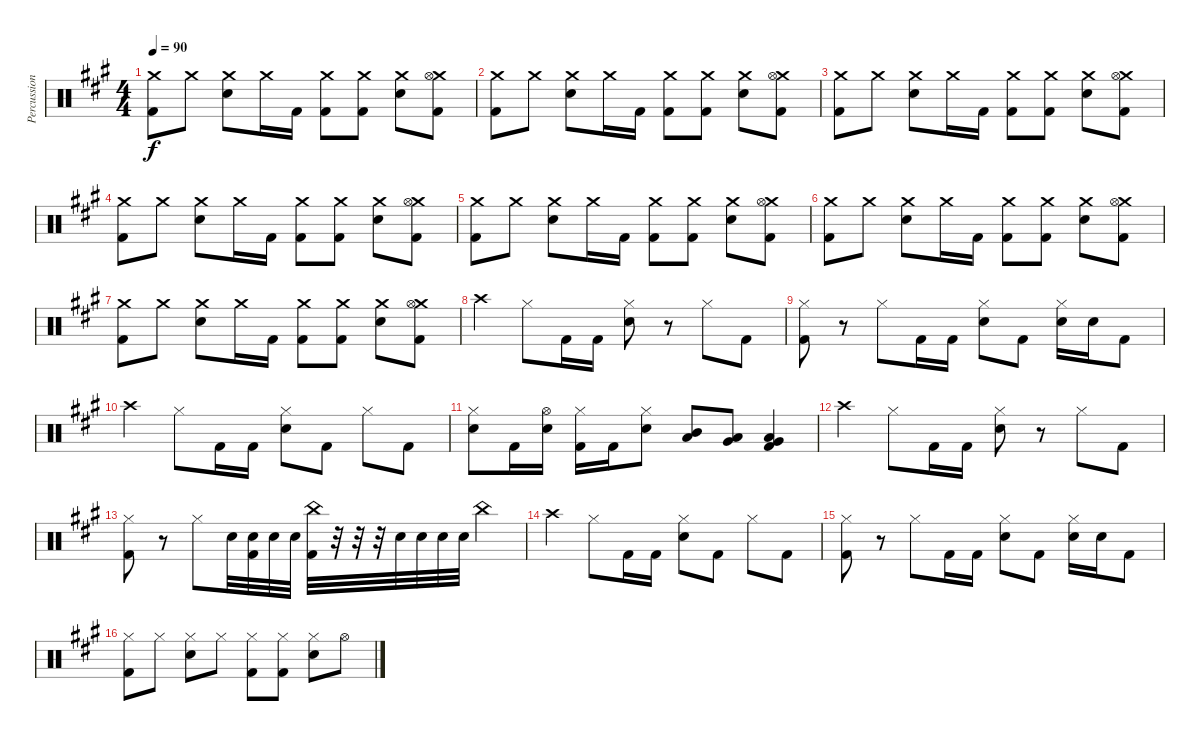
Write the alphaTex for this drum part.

\track ("Percussion" "Percussion") {instrument percussion}
\staff {score}
\articulation defaults
\ts (4 4)
\tempo 90
\clef neutral
\ks a
("Crash medium (hit)" "Kick (hit) 2").8{dy f} "Crash medium (hit)".8 ("Crash medium (hit)" "Electric Snare (hit)").8 "Crash medium (hit)".16 "Kick (hit) 2".16 ("Crash medium (hit)" "Kick (hit) 2").8 ("Crash medium (hit)" "Kick (hit) 2").8 ("Crash medium (hit)" "Electric Snare (hit)").8 ("Crash medium (hit)" "Hi-Hat (open)" "Kick (hit) 2").8 |
("Crash medium (hit)" "Kick (hit) 2").8 "Crash medium (hit)".8 ("Crash medium (hit)" "Electric Snare (hit)").8 "Crash medium (hit)".16 "Kick (hit) 2".16 ("Crash medium (hit)" "Kick (hit) 2").8 ("Crash medium (hit)" "Kick (hit) 2").8 ("Crash medium (hit)" "Electric Snare (hit)").8 ("Crash medium (hit)" "Hi-Hat (open)" "Kick (hit) 2").8 |
("Crash medium (hit)" "Kick (hit) 2").8 "Crash medium (hit)".8 ("Crash medium (hit)" "Electric Snare (hit)").8 "Crash medium (hit)".16 "Kick (hit) 2".16 ("Crash medium (hit)" "Kick (hit) 2").8 ("Crash medium (hit)" "Kick (hit) 2").8 ("Crash medium (hit)" "Electric Snare (hit)").8 ("Crash medium (hit)" "Hi-Hat (open)" "Kick (hit) 2").8 |
("Crash medium (hit)" "Kick (hit) 2").8 "Crash medium (hit)".8 ("Crash medium (hit)" "Electric Snare (hit)").8 "Crash medium (hit)".16 "Kick (hit) 2".16 ("Crash medium (hit)" "Kick (hit) 2").8 ("Crash medium (hit)" "Kick (hit) 2").8 ("Crash medium (hit)" "Electric Snare (hit)").8 ("Crash medium (hit)" "Hi-Hat (open)" "Kick (hit) 2").8 |
("Crash medium (hit)" "Kick (hit) 2").8 "Crash medium (hit)".8 ("Crash medium (hit)" "Electric Snare (hit)").8 "Crash medium (hit)".16 "Kick (hit) 2".16 ("Crash medium (hit)" "Kick (hit) 2").8 ("Crash medium (hit)" "Kick (hit) 2").8 ("Crash medium (hit)" "Electric Snare (hit)").8 ("Crash medium (hit)" "Hi-Hat (open)" "Kick (hit) 2").8 |
("Crash medium (hit)" "Kick (hit) 2").8 "Crash medium (hit)".8 ("Crash medium (hit)" "Electric Snare (hit)").8 "Crash medium (hit)".16 "Kick (hit) 2".16 ("Crash medium (hit)" "Kick (hit) 2").8 ("Crash medium (hit)" "Kick (hit) 2").8 ("Crash medium (hit)" "Electric Snare (hit)").8 ("Crash medium (hit)" "Hi-Hat (open)" "Kick (hit) 2").8 |
("Crash medium (hit)" "Kick (hit) 2").8 "Crash medium (hit)".8 ("Crash medium (hit)" "Electric Snare (hit)").8 "Crash medium (hit)".16 "Kick (hit) 2".16 ("Crash medium (hit)" "Kick (hit) 2").8 ("Crash medium (hit)" "Kick (hit) 2").8 ("Crash medium (hit)" "Electric Snare (hit)").8 ("Crash medium (hit)" "Hi-Hat (open)" "Kick (hit) 2").8 |
"Crash high (hit)".4 "Hi-Hat (closed)".8 "Kick (hit) 2".16 "Kick (hit) 2".16 ("Hi-Hat (closed)" "Electric Snare (hit)").8 r.8 "Hi-Hat (closed)".8 "Kick (hit) 2".8 |
("Hi-Hat (closed)" "Kick (hit) 2").8 r.8 "Hi-Hat (closed)".8 "Kick (hit) 2".16 "Kick (hit) 2".16 ("Hi-Hat (closed)" "Electric Snare (hit)").8 "Kick (hit) 2".8 ("Hi-Hat (closed)" "Electric Snare (hit)").16 "Electric Snare (hit)".16 "Kick (hit) 2".8 |
"Crash high (hit)".4 "Hi-Hat (closed)".8 "Kick (hit) 2".16 "Kick (hit) 2".16 ("Hi-Hat (closed)" "Electric Snare (hit)").8 "Kick (hit) 2".8 "Hi-Hat (closed)".8 "Kick (hit) 2".8 |
("Hi-Hat (closed)" "Electric Snare (hit)").8 "Kick (hit) 2".16 ("Hi-Hat (open)" "Electric Snare (hit)").16 ("Hi-Hat (closed)" "Kick (hit) 2").16 "Kick (hit) 2".16 ("Hi-Hat (closed)" "Electric Snare (hit)").8 ("Mid Tom (hit)" "Low Tom (hit)").8 ("Low Tom (hit)" "Very Low Tom (hit)").8 ("Very Low Tom (hit)" "Low Floor Tom (hit)" "Kick (hit) 2").4 |
"Crash high (hit)".4 "Hi-Hat (closed)".8 "Kick (hit) 2".16 "Kick (hit) 2".16 ("Hi-Hat (closed)" "Electric Snare (hit)").8 r.8 "Hi-Hat (closed)".8 "Kick (hit) 2".8 |
("Hi-Hat (closed)" "Kick (hit) 2").8 r.8 "Hi-Hat (closed)".8 "Electric Snare (hit)".32 ("Electric Snare (hit)" "Kick (hit) 2").32 "Electric Snare (hit)".32 "Electric Snare (hit)".32 ("China (hit)" "Kick (hit) 2").32 r.32 r.32 r.32 "Electric Snare (hit)".32 "Electric Snare (hit)".32 "Electric Snare (hit)".32 "Electric Snare (hit)".32 "China (hit)".4 |
"Crash high (hit)".4 "Hi-Hat (closed)".8 "Kick (hit) 2".16 "Kick (hit) 2".16 ("Hi-Hat (closed)" "Electric Snare (hit)").8 "Kick (hit) 2".8 "Hi-Hat (closed)".8 "Kick (hit) 2".8 |
("Hi-Hat (closed)" "Kick (hit) 2").8 r.8 "Hi-Hat (closed)".8 "Kick (hit) 2".16 "Kick (hit) 2".16 ("Hi-Hat (closed)" "Electric Snare (hit)").8 "Kick (hit) 2".8 ("Hi-Hat (closed)" "Electric Snare (hit)").16 "Electric Snare (hit)".16 "Kick (hit) 2".8 |
("Hi-Hat (closed)" "Kick (hit) 2").8 "Hi-Hat (closed)".8 ("Hi-Hat (closed)" "Electric Snare (hit)").8 "Hi-Hat (closed)".8 ("Hi-Hat (closed)" "Kick (hit) 2").8 ("Hi-Hat (closed)" "Kick (hit) 2").8 ("Hi-Hat (closed)" "Electric Snare (hit)").8 "Hi-Hat (open)".8
